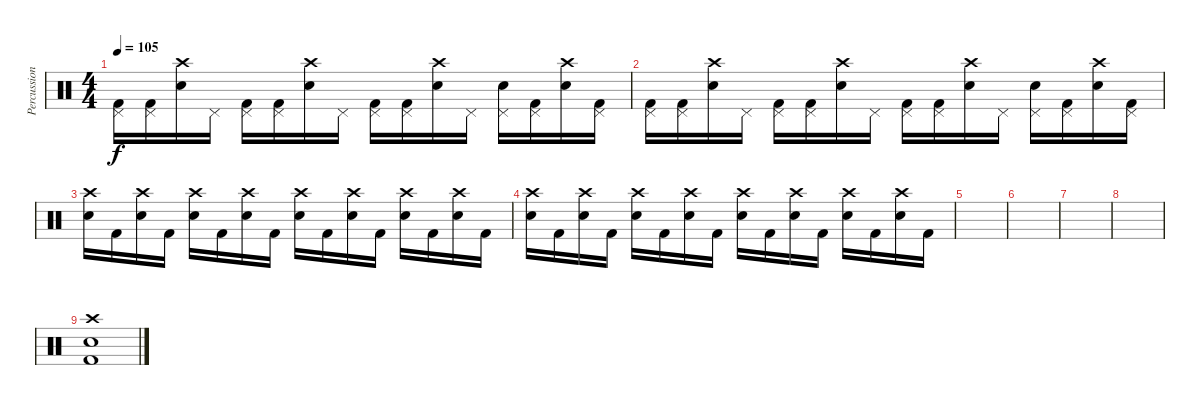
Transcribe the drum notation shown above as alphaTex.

\track ("Percussion" "Percussion") {instrument percussion}
\staff {score}
\articulation defaults
\ts (4 4)
\tempo 105
\clef neutral
\ks c
("Pedal Hi-Hat (hit)" "Kick (hit) 2").16{dy f} ("Pedal Hi-Hat (hit)" "Kick (hit) 2").16 ("Crash high (hit)" "Electric Snare (hit)").16 "Pedal Hi-Hat (hit)".16 ("Pedal Hi-Hat (hit)" "Kick (hit) 2").16 ("Pedal Hi-Hat (hit)" "Kick (hit) 2").16 ("Crash high (hit)" "Electric Snare (hit)").16 "Pedal Hi-Hat (hit)".16 ("Pedal Hi-Hat (hit)" "Kick (hit) 2").16 ("Pedal Hi-Hat (hit)" "Kick (hit) 2").16 ("Crash high (hit)" "Electric Snare (hit)").16 "Pedal Hi-Hat (hit)".16 ("Pedal Hi-Hat (hit)" "Electric Snare (hit)").16 ("Pedal Hi-Hat (hit)" "Kick (hit) 2").16 ("Crash high (hit)" "Electric Snare (hit)").16 ("Pedal Hi-Hat (hit)" "Kick (hit) 2").16 |
("Pedal Hi-Hat (hit)" "Kick (hit) 2").16 ("Pedal Hi-Hat (hit)" "Kick (hit) 2").16 ("Crash high (hit)" "Electric Snare (hit)").16 "Pedal Hi-Hat (hit)".16 ("Pedal Hi-Hat (hit)" "Kick (hit) 2").16 ("Pedal Hi-Hat (hit)" "Kick (hit) 2").16 ("Crash high (hit)" "Electric Snare (hit)").16 "Pedal Hi-Hat (hit)".16 ("Pedal Hi-Hat (hit)" "Kick (hit) 2").16 ("Pedal Hi-Hat (hit)" "Kick (hit) 2").16 ("Crash high (hit)" "Electric Snare (hit)").16 "Pedal Hi-Hat (hit)".16 ("Pedal Hi-Hat (hit)" "Electric Snare (hit)").16 ("Pedal Hi-Hat (hit)" "Kick (hit) 2").16 ("Crash high (hit)" "Electric Snare (hit)").16 ("Pedal Hi-Hat (hit)" "Kick (hit) 2").16 |
("Crash high (hit)" "Electric Snare (hit)").16 "Kick (hit) 2".16 ("Crash high (hit)" "Electric Snare (hit)").16 "Kick (hit) 2".16 ("Crash high (hit)" "Electric Snare (hit)").16 "Kick (hit) 2".16 ("Crash high (hit)" "Electric Snare (hit)").16 "Kick (hit) 2".16 ("Crash high (hit)" "Electric Snare (hit)").16 "Kick (hit) 2".16 ("Crash high (hit)" "Electric Snare (hit)").16 "Kick (hit) 2".16 ("Crash high (hit)" "Electric Snare (hit)").16 "Kick (hit) 2".16 ("Crash high (hit)" "Electric Snare (hit)").16 "Kick (hit) 2".16 |
("Crash high (hit)" "Electric Snare (hit)").16 "Kick (hit) 2".16 ("Crash high (hit)" "Electric Snare (hit)").16 "Kick (hit) 2".16 ("Crash high (hit)" "Electric Snare (hit)").16 "Kick (hit) 2".16 ("Crash high (hit)" "Electric Snare (hit)").16 "Kick (hit) 2".16 ("Crash high (hit)" "Electric Snare (hit)").16 "Kick (hit) 2".16 ("Crash high (hit)" "Electric Snare (hit)").16 "Kick (hit) 2".16 ("Crash high (hit)" "Electric Snare (hit)").16 "Kick (hit) 2".16 ("Crash high (hit)" "Electric Snare (hit)").16 "Kick (hit) 2".16 |
|
|
|
|
("Crash high (hit)" "Electric Snare (hit)" "Kick (hit) 2").1
